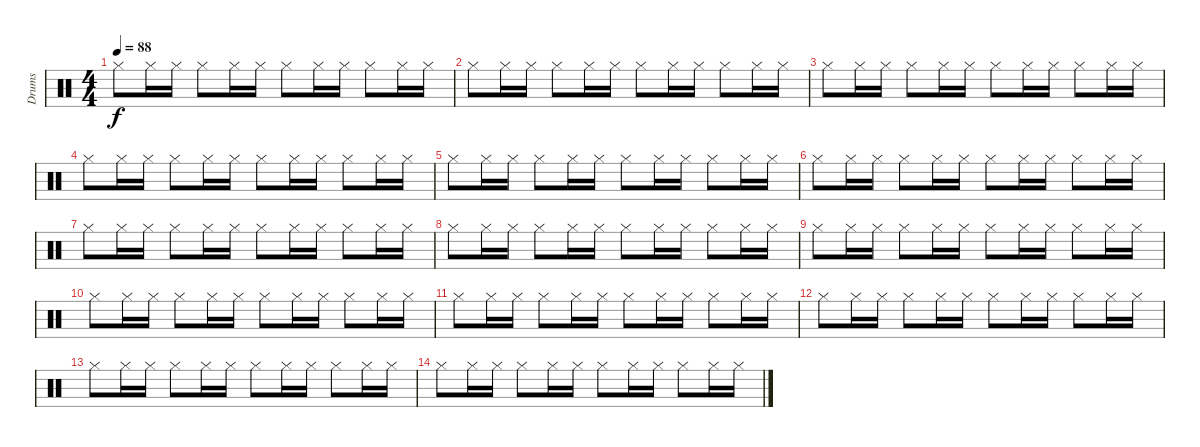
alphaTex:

\track ("Drums" "Drums") {instrument percussion}
\staff {score}
\articulation defaults
\ts (4 4)
\tempo 88
\clef neutral
\ks c "Hi-Hat (closed)".8{dy f} "Hi-Hat (closed)".16 "Hi-Hat (closed)".16 "Hi-Hat (closed)".8 "Hi-Hat (closed)".16 "Hi-Hat (closed)".16 "Hi-Hat (closed)".8 "Hi-Hat (closed)".16 "Hi-Hat (closed)".16 "Hi-Hat (closed)".8 "Hi-Hat (closed)".16 "Hi-Hat (closed)".16
|
"Hi-Hat (closed)".8 "Hi-Hat (closed)".16 "Hi-Hat (closed)".16 "Hi-Hat (closed)".8 "Hi-Hat (closed)".16 "Hi-Hat (closed)".16 "Hi-Hat (closed)".8 "Hi-Hat (closed)".16 "Hi-Hat (closed)".16 "Hi-Hat (closed)".8 "Hi-Hat (closed)".16 "Hi-Hat (closed)".16 |
"Hi-Hat (closed)".8 "Hi-Hat (closed)".16 "Hi-Hat (closed)".16 "Hi-Hat (closed)".8 "Hi-Hat (closed)".16 "Hi-Hat (closed)".16 "Hi-Hat (closed)".8 "Hi-Hat (closed)".16 "Hi-Hat (closed)".16 "Hi-Hat (closed)".8 "Hi-Hat (closed)".16 "Hi-Hat (closed)".16 |
"Hi-Hat (closed)".8 "Hi-Hat (closed)".16 "Hi-Hat (closed)".16 "Hi-Hat (closed)".8 "Hi-Hat (closed)".16 "Hi-Hat (closed)".16 "Hi-Hat (closed)".8 "Hi-Hat (closed)".16 "Hi-Hat (closed)".16 "Hi-Hat (closed)".8 "Hi-Hat (closed)".16 "Hi-Hat (closed)".16 |
"Hi-Hat (closed)".8 "Hi-Hat (closed)".16 "Hi-Hat (closed)".16 "Hi-Hat (closed)".8 "Hi-Hat (closed)".16 "Hi-Hat (closed)".16 "Hi-Hat (closed)".8 "Hi-Hat (closed)".16 "Hi-Hat (closed)".16 "Hi-Hat (closed)".8 "Hi-Hat (closed)".16 "Hi-Hat (closed)".16 |
"Hi-Hat (closed)".8 "Hi-Hat (closed)".16 "Hi-Hat (closed)".16 "Hi-Hat (closed)".8 "Hi-Hat (closed)".16 "Hi-Hat (closed)".16 "Hi-Hat (closed)".8 "Hi-Hat (closed)".16 "Hi-Hat (closed)".16 "Hi-Hat (closed)".8 "Hi-Hat (closed)".16 "Hi-Hat (closed)".16 |
"Hi-Hat (closed)".8 "Hi-Hat (closed)".16 "Hi-Hat (closed)".16 "Hi-Hat (closed)".8 "Hi-Hat (closed)".16 "Hi-Hat (closed)".16 "Hi-Hat (closed)".8 "Hi-Hat (closed)".16 "Hi-Hat (closed)".16 "Hi-Hat (closed)".8 "Hi-Hat (closed)".16 "Hi-Hat (closed)".16 |
"Hi-Hat (closed)".8 "Hi-Hat (closed)".16 "Hi-Hat (closed)".16 "Hi-Hat (closed)".8 "Hi-Hat (closed)".16 "Hi-Hat (closed)".16 "Hi-Hat (closed)".8 "Hi-Hat (closed)".16 "Hi-Hat (closed)".16 "Hi-Hat (closed)".8 "Hi-Hat (closed)".16 "Hi-Hat (closed)".16 |
"Hi-Hat (closed)".8 "Hi-Hat (closed)".16 "Hi-Hat (closed)".16 "Hi-Hat (closed)".8 "Hi-Hat (closed)".16 "Hi-Hat (closed)".16 "Hi-Hat (closed)".8 "Hi-Hat (closed)".16 "Hi-Hat (closed)".16 "Hi-Hat (closed)".8 "Hi-Hat (closed)".16 "Hi-Hat (closed)".16 |
"Hi-Hat (closed)".8 "Hi-Hat (closed)".16 "Hi-Hat (closed)".16 "Hi-Hat (closed)".8 "Hi-Hat (closed)".16 "Hi-Hat (closed)".16 "Hi-Hat (closed)".8 "Hi-Hat (closed)".16 "Hi-Hat (closed)".16 "Hi-Hat (closed)".8 "Hi-Hat (closed)".16 "Hi-Hat (closed)".16 |
"Hi-Hat (closed)".8 "Hi-Hat (closed)".16 "Hi-Hat (closed)".16 "Hi-Hat (closed)".8 "Hi-Hat (closed)".16 "Hi-Hat (closed)".16 "Hi-Hat (closed)".8 "Hi-Hat (closed)".16 "Hi-Hat (closed)".16 "Hi-Hat (closed)".8 "Hi-Hat (closed)".16 "Hi-Hat (closed)".16 |
"Hi-Hat (closed)".8 "Hi-Hat (closed)".16 "Hi-Hat (closed)".16 "Hi-Hat (closed)".8 "Hi-Hat (closed)".16 "Hi-Hat (closed)".16 "Hi-Hat (closed)".8 "Hi-Hat (closed)".16 "Hi-Hat (closed)".16 "Hi-Hat (closed)".8 "Hi-Hat (closed)".16 "Hi-Hat (closed)".16 |
"Hi-Hat (closed)".8 "Hi-Hat (closed)".16 "Hi-Hat (closed)".16 "Hi-Hat (closed)".8 "Hi-Hat (closed)".16 "Hi-Hat (closed)".16 "Hi-Hat (closed)".8 "Hi-Hat (closed)".16 "Hi-Hat (closed)".16 "Hi-Hat (closed)".8 "Hi-Hat (closed)".16 "Hi-Hat (closed)".16 |
"Hi-Hat (closed)".8 "Hi-Hat (closed)".16 "Hi-Hat (closed)".16 "Hi-Hat (closed)".8 "Hi-Hat (closed)".16 "Hi-Hat (closed)".16 "Hi-Hat (closed)".8 "Hi-Hat (closed)".16 "Hi-Hat (closed)".16 "Hi-Hat (closed)".8 "Hi-Hat (closed)".16 "Hi-Hat (closed)".16
